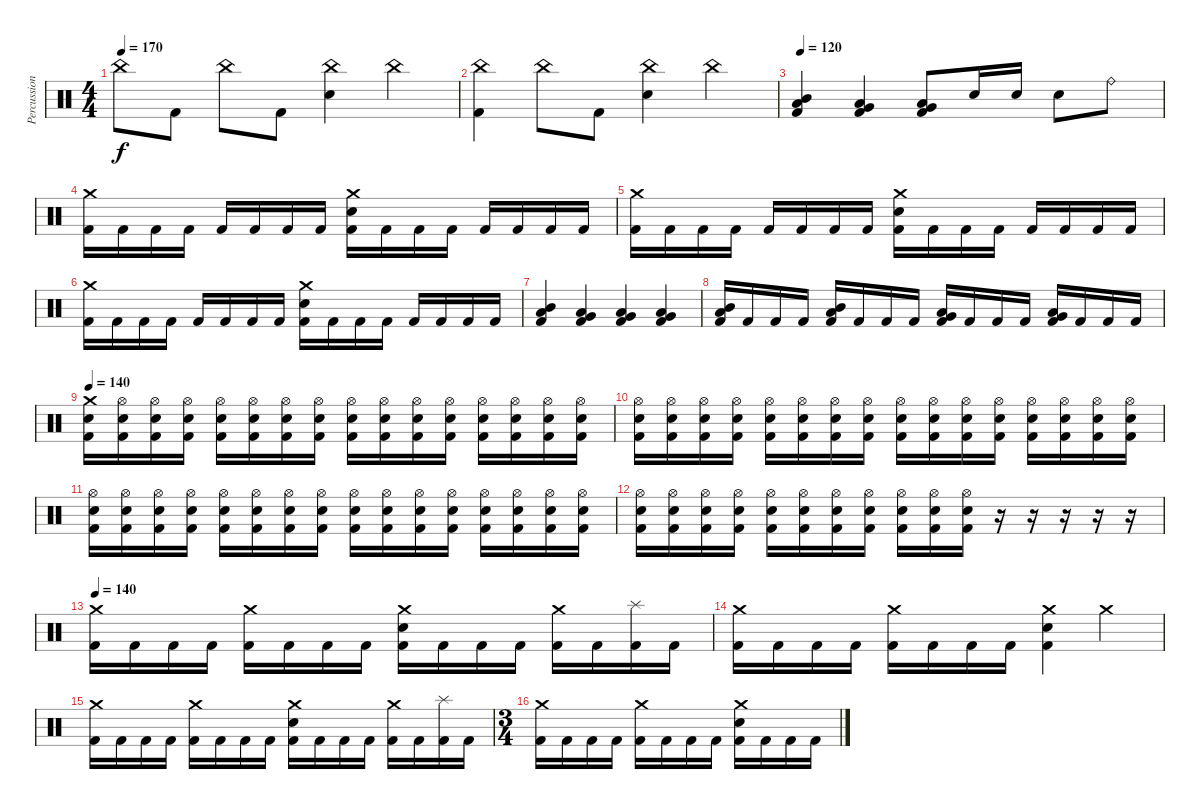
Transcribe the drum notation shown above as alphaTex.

\track ("Percussion" "Percussion") {instrument percussion}
\staff {score}
\articulation defaults
\ts (4 4)
\tempo 170
\clef neutral
\ks c "China (hit)".8{dy f} "Kick (hit) 2".8 "China (hit)".8 "Kick (hit) 2".8
("China (hit)" "Electric Snare (hit)").4 "China (hit)".4 |
("China (hit)" "Kick (hit) 2").4 "China (hit)".8 "Kick (hit) 2".8 ("China (hit)" "Electric Snare (hit)").4 "China (hit)".4 |
\tempo 120
("Mid Tom (hit)" "Low Tom (hit)" "Kick (hit) 2").4 ("Low Tom (hit)" "Very Low Tom (hit)" "Kick (hit) 2").4 ("Very Low Tom (hit)" "Low Floor Tom (hit)" "Kick (hit) 2").8 "Electric Snare (hit)".16 "Electric Snare (hit)".16 "Electric Snare (hit)".8 "Ride (bell)".8 |
("Crash medium (hit)" "Kick (hit) 2").16 "Kick (hit) 2".16 "Kick (hit) 2".16 "Kick (hit) 2".16 "Kick (hit) 2".16 "Kick (hit) 2".16 "Kick (hit) 2".16 "Kick (hit) 2".16 ("Crash medium (hit)" "Electric Snare (hit)" "Kick (hit) 2").16 "Kick (hit) 2".16 "Kick (hit) 2".16 "Kick (hit) 2".16 "Kick (hit) 2".16 "Kick (hit) 2".16 "Kick (hit) 2".16 "Kick (hit) 2".16 |
("Crash medium (hit)" "Kick (hit) 2").16 "Kick (hit) 2".16 "Kick (hit) 2".16 "Kick (hit) 2".16 "Kick (hit) 2".16 "Kick (hit) 2".16 "Kick (hit) 2".16 "Kick (hit) 2".16 ("Crash medium (hit)" "Electric Snare (hit)" "Kick (hit) 2").16 "Kick (hit) 2".16 "Kick (hit) 2".16 "Kick (hit) 2".16 "Kick (hit) 2".16 "Kick (hit) 2".16 "Kick (hit) 2".16 "Kick (hit) 2".16 |
("Crash medium (hit)" "Kick (hit) 2").16 "Kick (hit) 2".16 "Kick (hit) 2".16 "Kick (hit) 2".16 "Kick (hit) 2".16 "Kick (hit) 2".16 "Kick (hit) 2".16 "Kick (hit) 2".16 ("Crash medium (hit)" "Electric Snare (hit)" "Kick (hit) 2").16 "Kick (hit) 2".16 "Kick (hit) 2".16 "Kick (hit) 2".16 "Kick (hit) 2".16 "Kick (hit) 2".16 "Kick (hit) 2".16 "Kick (hit) 2".16 |
("Mid Tom (hit)" "Low Tom (hit)" "Kick (hit) 2").4 ("Low Tom (hit)" "Very Low Tom (hit)" "Kick (hit) 2").4 ("Very Low Tom (hit)" "Low Floor Tom (hit)" "Kick (hit) 2").4 ("Very Low Tom (hit)" "Low Floor Tom (hit)" "Kick (hit) 2").4 |
("Mid Tom (hit)" "Low Tom (hit)" "Kick (hit) 2").16 "Kick (hit) 2".16 "Kick (hit) 2".16 "Kick (hit) 2".16 ("Low Tom (hit)" "Mid Tom (hit)" "Kick (hit) 2").16 "Kick (hit) 2".16 "Kick (hit) 2".16 "Kick (hit) 2".16 ("Low Tom (hit)" "Very Low Tom (hit)" "Kick (hit) 2").16 "Kick (hit) 2".16 "Kick (hit) 2".16 "Kick (hit) 2".16 ("Very Low Tom (hit)" "Low Floor Tom (hit)" "Kick (hit) 2").16 "Kick (hit) 2".16 "Kick (hit) 2".16 "Kick (hit) 2".16 |
\tempo 140
("Crash medium (hit)" "Electric Snare (hit)" "Kick (hit) 2").16 ("Hi-Hat (open)" "Electric Snare (hit)" "Kick (hit) 2").16 ("Hi-Hat (open)" "Electric Snare (hit)" "Kick (hit) 2").16 ("Hi-Hat (open)" "Electric Snare (hit)" "Kick (hit) 2").16 ("Hi-Hat (open)" "Electric Snare (hit)" "Kick (hit) 2").16 ("Hi-Hat (open)" "Electric Snare (hit)" "Kick (hit) 2").16 ("Hi-Hat (open)" "Electric Snare (hit)" "Kick (hit) 2").16 ("Hi-Hat (open)" "Electric Snare (hit)" "Kick (hit) 2").16 ("Hi-Hat (open)" "Electric Snare (hit)" "Kick (hit) 2").16 ("Hi-Hat (open)" "Electric Snare (hit)" "Kick (hit) 2").16 ("Hi-Hat (open)" "Electric Snare (hit)" "Kick (hit) 2").16 ("Hi-Hat (open)" "Electric Snare (hit)" "Kick (hit) 2").16 ("Hi-Hat (open)" "Electric Snare (hit)" "Kick (hit) 2").16 ("Hi-Hat (open)" "Electric Snare (hit)" "Kick (hit) 2").16 ("Hi-Hat (open)" "Electric Snare (hit)" "Kick (hit) 2").16 ("Hi-Hat (open)" "Electric Snare (hit)" "Kick (hit) 2").16 |
("Hi-Hat (open)" "Electric Snare (hit)" "Kick (hit) 2").16 ("Hi-Hat (open)" "Electric Snare (hit)" "Kick (hit) 2").16 ("Hi-Hat (open)" "Electric Snare (hit)" "Kick (hit) 2").16 ("Hi-Hat (open)" "Electric Snare (hit)" "Kick (hit) 2").16 ("Hi-Hat (open)" "Electric Snare (hit)" "Kick (hit) 2").16 ("Hi-Hat (open)" "Electric Snare (hit)" "Kick (hit) 2").16 ("Hi-Hat (open)" "Electric Snare (hit)" "Kick (hit) 2").16 ("Hi-Hat (open)" "Electric Snare (hit)" "Kick (hit) 2").16 ("Hi-Hat (open)" "Electric Snare (hit)" "Kick (hit) 2").16 ("Hi-Hat (open)" "Electric Snare (hit)" "Kick (hit) 2").16 ("Hi-Hat (open)" "Electric Snare (hit)" "Kick (hit) 2").16 ("Hi-Hat (open)" "Electric Snare (hit)" "Kick (hit) 2").16 ("Hi-Hat (open)" "Electric Snare (hit)" "Kick (hit) 2").16 ("Hi-Hat (open)" "Electric Snare (hit)" "Kick (hit) 2").16 ("Hi-Hat (open)" "Electric Snare (hit)" "Kick (hit) 2").16 ("Hi-Hat (open)" "Electric Snare (hit)" "Kick (hit) 2").16 |
("Hi-Hat (open)" "Electric Snare (hit)" "Kick (hit) 2").16 ("Hi-Hat (open)" "Electric Snare (hit)" "Kick (hit) 2").16 ("Hi-Hat (open)" "Electric Snare (hit)" "Kick (hit) 2").16 ("Hi-Hat (open)" "Electric Snare (hit)" "Kick (hit) 2").16 ("Hi-Hat (open)" "Electric Snare (hit)" "Kick (hit) 2").16 ("Hi-Hat (open)" "Electric Snare (hit)" "Kick (hit) 2").16 ("Hi-Hat (open)" "Electric Snare (hit)" "Kick (hit) 2").16 ("Hi-Hat (open)" "Electric Snare (hit)" "Kick (hit) 2").16 ("Hi-Hat (open)" "Electric Snare (hit)" "Kick (hit) 2").16 ("Hi-Hat (open)" "Electric Snare (hit)" "Kick (hit) 2").16 ("Hi-Hat (open)" "Electric Snare (hit)" "Kick (hit) 2").16 ("Hi-Hat (open)" "Electric Snare (hit)" "Kick (hit) 2").16 ("Hi-Hat (open)" "Electric Snare (hit)" "Kick (hit) 2").16 ("Hi-Hat (open)" "Electric Snare (hit)" "Kick (hit) 2").16 ("Hi-Hat (open)" "Electric Snare (hit)" "Kick (hit) 2").16 ("Hi-Hat (open)" "Electric Snare (hit)" "Kick (hit) 2").16 |
("Hi-Hat (open)" "Electric Snare (hit)" "Kick (hit) 2").16 ("Hi-Hat (open)" "Electric Snare (hit)" "Kick (hit) 2").16 ("Hi-Hat (open)" "Electric Snare (hit)" "Kick (hit) 2").16 ("Hi-Hat (open)" "Electric Snare (hit)" "Kick (hit) 2").16 ("Hi-Hat (open)" "Electric Snare (hit)" "Kick (hit) 2").16 ("Hi-Hat (open)" "Electric Snare (hit)" "Kick (hit) 2").16 ("Hi-Hat (open)" "Electric Snare (hit)" "Kick (hit) 2").16 ("Hi-Hat (open)" "Electric Snare (hit)" "Kick (hit) 2").16 ("Hi-Hat (open)" "Electric Snare (hit)" "Kick (hit) 2").16 ("Hi-Hat (open)" "Electric Snare (hit)" "Kick (hit) 2").16 ("Hi-Hat (open)" "Electric Snare (hit)" "Kick (hit) 2").16 r.16 r.16 r.16 r.16 r.16 |
\tempo 140
("Crash medium (hit)" "Kick (hit) 2").16 "Kick (hit) 2".16 "Kick (hit) 2".16 "Kick (hit) 2".16 ("Crash medium (hit)" "Kick (hit) 2").16 "Kick (hit) 2".16 "Kick (hit) 2".16 "Kick (hit) 2".16 ("Crash medium (hit)" "Electric Snare (hit)" "Kick (hit) 2").16 "Kick (hit) 2".16 "Kick (hit) 2".16 "Kick (hit) 2".16 ("Crash medium (hit)" "Kick (hit) 2").16 "Kick (hit) 2".16 ("Splash (hit)" "Kick (hit) 2").16 "Kick (hit) 2".16 |
("Crash medium (hit)" "Kick (hit) 2").16 "Kick (hit) 2".16 "Kick (hit) 2".16 "Kick (hit) 2".16 ("Crash medium (hit)" "Kick (hit) 2").16 "Kick (hit) 2".16 "Kick (hit) 2".16 "Kick (hit) 2".16 ("Crash medium (hit)" "Electric Snare (hit)" "Kick (hit) 2").4 "Crash medium (hit)".4 |
("Crash medium (hit)" "Kick (hit) 2").16 "Kick (hit) 2".16 "Kick (hit) 2".16 "Kick (hit) 2".16 ("Crash medium (hit)" "Kick (hit) 2").16 "Kick (hit) 2".16 "Kick (hit) 2".16 "Kick (hit) 2".16 ("Crash medium (hit)" "Electric Snare (hit)" "Kick (hit) 2").16 "Kick (hit) 2".16 "Kick (hit) 2".16 "Kick (hit) 2".16 ("Crash medium (hit)" "Kick (hit) 2").16 "Kick (hit) 2".16 ("Splash (hit)" "Kick (hit) 2").16 "Kick (hit) 2".16 |
\ts (3 4)
("Crash medium (hit)" "Kick (hit) 2").16 "Kick (hit) 2".16 "Kick (hit) 2".16 "Kick (hit) 2".16 ("Crash medium (hit)" "Kick (hit) 2").16 "Kick (hit) 2".16 "Kick (hit) 2".16 "Kick (hit) 2".16 ("Crash medium (hit)" "Electric Snare (hit)" "Kick (hit) 2").16 "Kick (hit) 2".16 "Kick (hit) 2".16 "Kick (hit) 2".16
